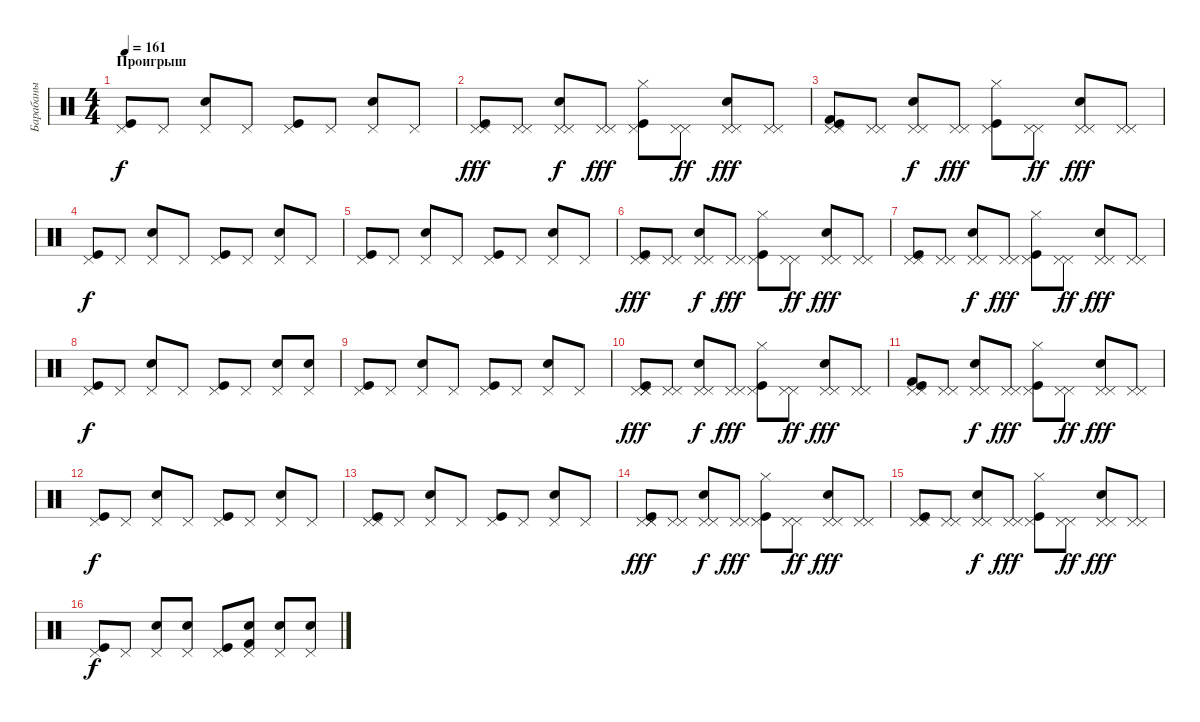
\track ("Барабаны" "Барабаны") {instrument percussion}
\staff {score}
\articulation defaults
\ts (4 4)
\section ("" "Проигрыш")
\tempo 161
\clef neutral
\ks c
("Kick (hit)" "Pedal Hi-Hat (hit)").8{dy f} "Pedal Hi-Hat (hit)".8 ("Snare (hit) 2" "Pedal Hi-Hat (hit)").8 "Pedal Hi-Hat (hit)".8 ("Kick (hit)" "Pedal Hi-Hat (hit)").8 "Pedal Hi-Hat (hit)".8 ("Snare (hit) 2" "Pedal Hi-Hat (hit)").8 "Pedal Hi-Hat (hit)".8 |
("Pedal Hi-Hat (hit)" "Kick (hit)" "Pedal Hi-Hat (hit)").8{dy fff} ("Pedal Hi-Hat (hit)" "Pedal Hi-Hat (hit)").8 ("Snare (hit) 2" "Pedal Hi-Hat (hit)" "Pedal Hi-Hat (hit)").8{dy f} ("Pedal Hi-Hat (hit)" "Pedal Hi-Hat (hit)").8{dy fff} ("Kick (hit)" "Hi-Hat (closed)" "Pedal Hi-Hat (hit)").8 ("Pedal Hi-Hat (hit)" "Pedal Hi-Hat (hit)").8{dy ff} ("Snare (hit) 2" "Pedal Hi-Hat (hit)" "Pedal Hi-Hat (hit)").8{dy fff} ("Pedal Hi-Hat (hit)" "Pedal Hi-Hat (hit)").8 |
("Kick (hit)" "Kick (hit) 2" "Pedal Hi-Hat (hit)" "Pedal Hi-Hat (hit)").8 ("Pedal Hi-Hat (hit)" "Pedal Hi-Hat (hit)").8 ("Snare (hit) 2" "Pedal Hi-Hat (hit)" "Pedal Hi-Hat (hit)").8{dy f} ("Pedal Hi-Hat (hit)" "Pedal Hi-Hat (hit)").8{dy fff} ("Kick (hit)" "Pedal Hi-Hat (hit)" "Hi-Hat (closed)").8 ("Pedal Hi-Hat (hit)" "Pedal Hi-Hat (hit)").8{dy ff} ("Snare (hit) 2" "Pedal Hi-Hat (hit)" "Pedal Hi-Hat (hit)").8{dy fff} ("Pedal Hi-Hat (hit)" "Pedal Hi-Hat (hit)").8 |
("Kick (hit)" "Pedal Hi-Hat (hit)").8{dy f} "Pedal Hi-Hat (hit)".8 ("Snare (hit) 2" "Pedal Hi-Hat (hit)").8 "Pedal Hi-Hat (hit)".8 ("Kick (hit)" "Pedal Hi-Hat (hit)").8 "Pedal Hi-Hat (hit)".8 ("Snare (hit) 2" "Pedal Hi-Hat (hit)").8 "Pedal Hi-Hat (hit)".8 |
("Kick (hit)" "Pedal Hi-Hat (hit)").8 "Pedal Hi-Hat (hit)".8 ("Snare (hit) 2" "Pedal Hi-Hat (hit)").8 "Pedal Hi-Hat (hit)".8 ("Kick (hit)" "Pedal Hi-Hat (hit)").8 "Pedal Hi-Hat (hit)".8 ("Snare (hit) 2" "Pedal Hi-Hat (hit)").8 "Pedal Hi-Hat (hit)".8 |
("Pedal Hi-Hat (hit)" "Kick (hit)" "Pedal Hi-Hat (hit)").8{dy fff} ("Pedal Hi-Hat (hit)" "Pedal Hi-Hat (hit)").8 ("Snare (hit) 2" "Pedal Hi-Hat (hit)" "Pedal Hi-Hat (hit)").8{dy f} ("Pedal Hi-Hat (hit)" "Pedal Hi-Hat (hit)").8{dy fff} ("Kick (hit)" "Hi-Hat (closed)" "Pedal Hi-Hat (hit)").8 ("Pedal Hi-Hat (hit)" "Pedal Hi-Hat (hit)").8{dy ff} ("Snare (hit) 2" "Pedal Hi-Hat (hit)" "Pedal Hi-Hat (hit)").8{dy fff} ("Pedal Hi-Hat (hit)" "Pedal Hi-Hat (hit)").8 |
("Pedal Hi-Hat (hit)" "Pedal Hi-Hat (hit)" "Kick (hit)").8 ("Pedal Hi-Hat (hit)" "Pedal Hi-Hat (hit)").8 ("Snare (hit) 2" "Pedal Hi-Hat (hit)" "Pedal Hi-Hat (hit)").8{dy f} ("Pedal Hi-Hat (hit)" "Pedal Hi-Hat (hit)").8{dy fff} ("Kick (hit)" "Pedal Hi-Hat (hit)" "Hi-Hat (closed)").8 ("Pedal Hi-Hat (hit)" "Pedal Hi-Hat (hit)").8{dy ff} ("Snare (hit) 2" "Pedal Hi-Hat (hit)" "Pedal Hi-Hat (hit)").8{dy fff} ("Pedal Hi-Hat (hit)" "Pedal Hi-Hat (hit)").8 |
("Pedal Hi-Hat (hit)" "Kick (hit)").8{dy f} "Pedal Hi-Hat (hit)".8 ("Snare (hit) 2" "Pedal Hi-Hat (hit)").8 "Pedal Hi-Hat (hit)".8 ("Kick (hit)" "Pedal Hi-Hat (hit)").8 "Pedal Hi-Hat (hit)".8 ("Snare (hit) 2" "Pedal Hi-Hat (hit)").8 ("Snare (hit) 2" "Pedal Hi-Hat (hit)").8 |
("Kick (hit)" "Pedal Hi-Hat (hit)").8 "Pedal Hi-Hat (hit)".8 ("Snare (hit) 2" "Pedal Hi-Hat (hit)").8 "Pedal Hi-Hat (hit)".8 ("Kick (hit)" "Pedal Hi-Hat (hit)").8 "Pedal Hi-Hat (hit)".8 ("Snare (hit) 2" "Pedal Hi-Hat (hit)").8 "Pedal Hi-Hat (hit)".8 |
("Pedal Hi-Hat (hit)" "Kick (hit)" "Pedal Hi-Hat (hit)" "Pedal Hi-Hat (hit)").8{dy fff} ("Pedal Hi-Hat (hit)" "Pedal Hi-Hat (hit)").8 ("Snare (hit) 2" "Pedal Hi-Hat (hit)" "Pedal Hi-Hat (hit)").8{dy f} ("Pedal Hi-Hat (hit)" "Pedal Hi-Hat (hit)").8{dy fff} ("Kick (hit)" "Hi-Hat (closed)" "Pedal Hi-Hat (hit)").8 ("Pedal Hi-Hat (hit)" "Pedal Hi-Hat (hit)").8{dy ff} ("Snare (hit) 2" "Pedal Hi-Hat (hit)" "Pedal Hi-Hat (hit)").8{dy fff} ("Pedal Hi-Hat (hit)" "Pedal Hi-Hat (hit)").8 |
("Pedal Hi-Hat (hit)" "Kick (hit)" "Kick (hit) 2" "Pedal Hi-Hat (hit)").8 ("Pedal Hi-Hat (hit)" "Pedal Hi-Hat (hit)").8 ("Snare (hit) 2" "Pedal Hi-Hat (hit)" "Pedal Hi-Hat (hit)").8{dy f} ("Pedal Hi-Hat (hit)" "Pedal Hi-Hat (hit)").8{dy fff} ("Kick (hit)" "Pedal Hi-Hat (hit)" "Hi-Hat (closed)").8 ("Pedal Hi-Hat (hit)" "Pedal Hi-Hat (hit)").8{dy ff} ("Snare (hit) 2" "Pedal Hi-Hat (hit)" "Pedal Hi-Hat (hit)").8{dy fff} ("Pedal Hi-Hat (hit)" "Pedal Hi-Hat (hit)").8 |
("Pedal Hi-Hat (hit)" "Kick (hit)").8{dy f} "Pedal Hi-Hat (hit)".8 ("Snare (hit) 2" "Pedal Hi-Hat (hit)").8 "Pedal Hi-Hat (hit)".8 ("Kick (hit)" "Pedal Hi-Hat (hit)").8 "Pedal Hi-Hat (hit)".8 ("Snare (hit) 2" "Pedal Hi-Hat (hit)").8 "Pedal Hi-Hat (hit)".8 |
("Pedal Hi-Hat (hit)" "Kick (hit)" "Pedal Hi-Hat (hit)").8 "Pedal Hi-Hat (hit)".8 ("Snare (hit) 2" "Pedal Hi-Hat (hit)").8 "Pedal Hi-Hat (hit)".8 ("Kick (hit)" "Pedal Hi-Hat (hit)").8 "Pedal Hi-Hat (hit)".8 ("Snare (hit) 2" "Pedal Hi-Hat (hit)").8 "Pedal Hi-Hat (hit)".8 |
("Pedal Hi-Hat (hit)" "Pedal Hi-Hat (hit)" "Kick (hit)" "Pedal Hi-Hat (hit)").8{dy fff} ("Pedal Hi-Hat (hit)" "Pedal Hi-Hat (hit)").8 ("Snare (hit) 2" "Pedal Hi-Hat (hit)" "Pedal Hi-Hat (hit)").8{dy f} ("Pedal Hi-Hat (hit)" "Pedal Hi-Hat (hit)").8{dy fff} ("Kick (hit)" "Hi-Hat (closed)" "Pedal Hi-Hat (hit)").8 ("Pedal Hi-Hat (hit)" "Pedal Hi-Hat (hit)").8{dy ff} ("Snare (hit) 2" "Pedal Hi-Hat (hit)" "Pedal Hi-Hat (hit)").8{dy fff} ("Pedal Hi-Hat (hit)" "Pedal Hi-Hat (hit)").8 |
("Kick (hit)" "Pedal Hi-Hat (hit)" "Pedal Hi-Hat (hit)").8 ("Pedal Hi-Hat (hit)" "Pedal Hi-Hat (hit)").8 ("Snare (hit) 2" "Pedal Hi-Hat (hit)" "Pedal Hi-Hat (hit)").8{dy f} ("Pedal Hi-Hat (hit)" "Pedal Hi-Hat (hit)").8{dy fff} ("Kick (hit)" "Pedal Hi-Hat (hit)" "Hi-Hat (closed)").8 ("Pedal Hi-Hat (hit)" "Pedal Hi-Hat (hit)").8{dy ff} ("Snare (hit) 2" "Pedal Hi-Hat (hit)" "Pedal Hi-Hat (hit)").8{dy fff} ("Pedal Hi-Hat (hit)" "Pedal Hi-Hat (hit)").8 |
("Kick (hit)" "Pedal Hi-Hat (hit)").8{dy f} "Pedal Hi-Hat (hit)".8 ("Snare (hit) 2" "Pedal Hi-Hat (hit)").8 ("Snare (hit) 2" "Pedal Hi-Hat (hit)").8 ("Kick (hit)" "Pedal Hi-Hat (hit)").8 ("Snare (hit) 2" "Kick (hit) 2" "Pedal Hi-Hat (hit)").8 ("Snare (hit) 2" "Pedal Hi-Hat (hit)").8 ("Snare (hit) 2" "Pedal Hi-Hat (hit)").8
